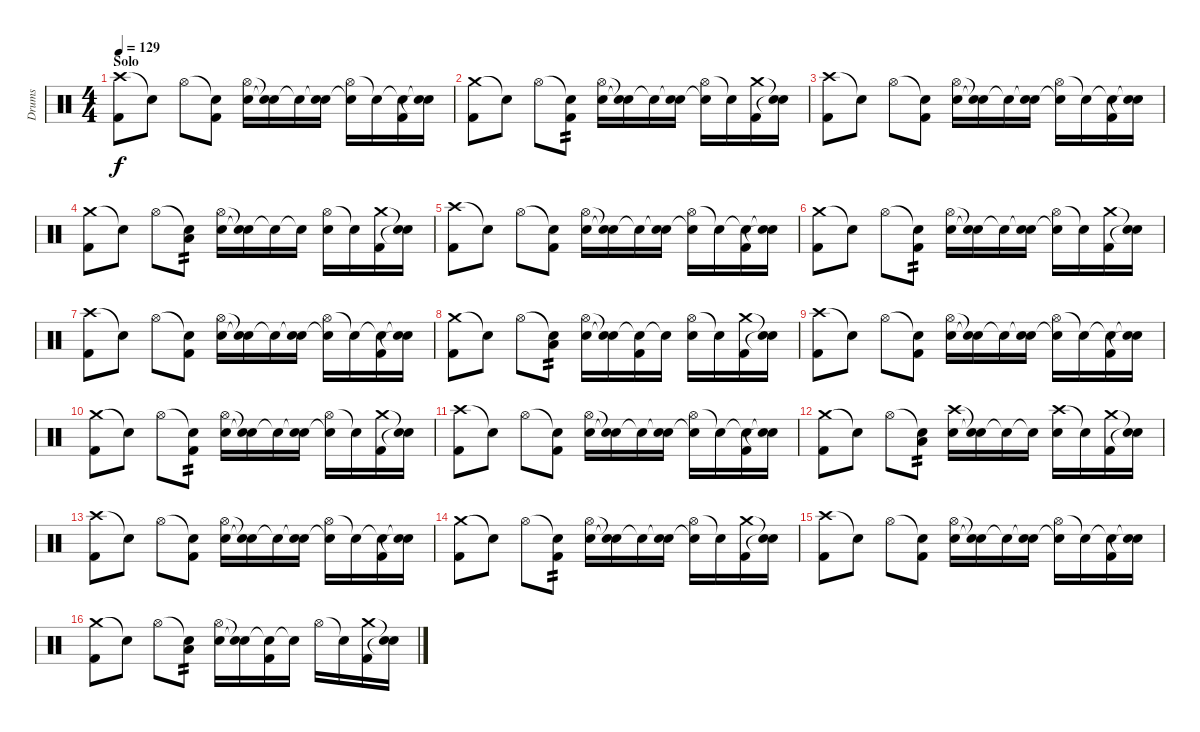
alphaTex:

\track ("Drums" "Drums") {instrument percussion}
\staff {score}
\articulation defaults
\ts (4 4)
\section ("" "Solo")
\tempo 129
\clef neutral
\ks c
("Crash high (hit)" "Kick (hit) 2").8{dy f volume 15} "Snare (hit)"{t}.8 "Hi-Hat (open)".8 ("Snare (hit)"{t} "Kick (hit) 2").8 ("Hi-Hat (open)" "Electric Snare (hit)").16 ("Snare (hit)"{t} "Snare (hit)"{t}).16 "Snare (hit)"{t}.16 ("Snare (hit)"{t} "Electric Snare (hit)").16 ("Hi-Hat (open)" "Snare (hit)"{t}).16 "Snare (hit)"{t}.16 ("Snare (hit)"{t} "Kick (hit) 2").16 ("Snare (hit)"{t} "Snare (hit)"{t}).16 |
("Crash medium (hit)" "Kick (hit) 2").8 "Snare (hit)"{t}.8 "Hi-Hat (open)".8 ("Snare (hit)"{t} "Kick (hit) 2").8{tp 2} ("Hi-Hat (open)" "Electric Snare (hit)").16 ("Snare (hit)"{t} "Snare (hit)"{t}).16 "Snare (hit)"{t}.16 ("Snare (hit)"{t} "Electric Snare (hit)").16 ("Hi-Hat (open)" "Snare (hit)"{t}).16 "Snare (hit)"{t}.16 ("Crash medium (hit)" "Kick (hit) 2").16 ("Snare (hit)"{t} "Snare (hit)"{t}).16 |
("Crash high (hit)" "Kick (hit) 2").8 "Snare (hit)"{t}.8 "Hi-Hat (open)".8 ("Snare (hit)"{t} "Kick (hit) 2").8 ("Hi-Hat (open)" "Electric Snare (hit)").16 ("Snare (hit)"{t} "Snare (hit)"{t}).16 "Snare (hit)"{t}.16 ("Snare (hit)"{t} "Electric Snare (hit)").16 ("Hi-Hat (open)" "Snare (hit)"{t}).16 "Snare (hit)"{t}.16 ("Snare (hit)"{t} "Kick (hit) 2").16 ("Snare (hit)"{t} "Snare (hit)"{t}).16 |
("Crash medium (hit)" "Kick (hit) 2").8 "Snare (hit)"{t}.8 "Hi-Hat (open)".8 ("Snare (hit)"{t} "Low Tom (hit)").8{tp 2} ("Hi-Hat (open)" "Electric Snare (hit)").16 ("Snare (hit)"{t} "Snare (hit)"{t}).16 "Snare (hit)"{t}.16 "Snare (hit)"{t}.16 ("Hi-Hat (open)" "Electric Snare (hit)").16 "Snare (hit)"{t}.16 ("Crash medium (hit)" "Kick (hit) 2").16 ("Snare (hit)"{t} "Snare (hit)"{t}).16 |
("Crash high (hit)" "Kick (hit) 2").8 "Snare (hit)"{t}.8 "Hi-Hat (open)".8 ("Snare (hit)"{t} "Kick (hit) 2").8 ("Hi-Hat (open)" "Electric Snare (hit)").16 ("Snare (hit)"{t} "Snare (hit)"{t}).16 "Snare (hit)"{t}.16 ("Snare (hit)"{t} "Electric Snare (hit)").16 ("Hi-Hat (open)" "Snare (hit)"{t}).16 "Snare (hit)"{t}.16 ("Snare (hit)"{t} "Kick (hit) 2").16 ("Snare (hit)"{t} "Snare (hit)"{t}).16 |
("Crash medium (hit)" "Kick (hit) 2").8 "Snare (hit)"{t}.8 "Hi-Hat (open)".8 ("Snare (hit)"{t} "Kick (hit) 2").8{tp 2} ("Hi-Hat (open)" "Electric Snare (hit)").16 ("Snare (hit)"{t} "Snare (hit)"{t}).16 "Snare (hit)"{t}.16 ("Snare (hit)"{t} "Electric Snare (hit)").16 ("Hi-Hat (open)" "Snare (hit)"{t}).16 "Snare (hit)"{t}.16 ("Crash medium (hit)" "Kick (hit) 2").16 ("Snare (hit)"{t} "Snare (hit)"{t}).16 |
("Crash high (hit)" "Kick (hit) 2").8 "Snare (hit)"{t}.8 "Hi-Hat (open)".8 ("Snare (hit)"{t} "Kick (hit) 2").8 ("Hi-Hat (open)" "Electric Snare (hit)").16 ("Snare (hit)"{t} "Snare (hit)"{t}).16 "Snare (hit)"{t}.16 ("Snare (hit)"{t} "Electric Snare (hit)").16 ("Hi-Hat (open)" "Snare (hit)"{t}).16 "Snare (hit)"{t}.16 ("Snare (hit)"{t} "Kick (hit) 2").16 ("Snare (hit)"{t} "Snare (hit)"{t}).16 |
("Crash medium (hit)" "Kick (hit) 2").8 "Snare (hit)"{t}.8 "Hi-Hat (open)".8 ("Snare (hit)"{t} "Low Tom (hit)").8{tp 2} ("Hi-Hat (open)" "Electric Snare (hit)").16 ("Snare (hit)"{t} "Snare (hit)"{t}).16 ("Snare (hit)"{t} "Kick (hit) 2").16 "Snare (hit)"{t}.16 ("Hi-Hat (open)" "Electric Snare (hit)").16 "Snare (hit)"{t}.16 ("Crash medium (hit)" "Kick (hit) 2").16 ("Snare (hit)"{t} "Snare (hit)"{t}).16 |
("Crash high (hit)" "Kick (hit) 2").8 "Snare (hit)"{t}.8 "Hi-Hat (open)".8 ("Snare (hit)"{t} "Kick (hit) 2").8 ("Hi-Hat (open)" "Electric Snare (hit)").16 ("Snare (hit)"{t} "Snare (hit)"{t}).16 "Snare (hit)"{t}.16 ("Snare (hit)"{t} "Electric Snare (hit)").16 ("Hi-Hat (open)" "Snare (hit)"{t}).16 "Snare (hit)"{t}.16 ("Snare (hit)"{t} "Kick (hit) 2").16 ("Snare (hit)"{t} "Snare (hit)"{t}).16 |
("Crash medium (hit)" "Kick (hit) 2").8 "Snare (hit)"{t}.8 "Hi-Hat (open)".8 ("Snare (hit)"{t} "Kick (hit) 2").8{tp 2} ("Hi-Hat (open)" "Electric Snare (hit)").16 ("Snare (hit)"{t} "Snare (hit)"{t}).16 "Snare (hit)"{t}.16 ("Snare (hit)"{t} "Electric Snare (hit)").16 ("Hi-Hat (open)" "Snare (hit)"{t}).16 "Snare (hit)"{t}.16 ("Crash medium (hit)" "Kick (hit) 2").16 ("Snare (hit)"{t} "Snare (hit)"{t}).16 |
("Crash high (hit)" "Kick (hit) 2").8 "Snare (hit)"{t}.8 "Hi-Hat (open)".8 ("Snare (hit)"{t} "Kick (hit) 2").8 ("Hi-Hat (open)" "Electric Snare (hit)").16 ("Snare (hit)"{t} "Snare (hit)"{t}).16 "Snare (hit)"{t}.16 ("Snare (hit)"{t} "Electric Snare (hit)").16 ("Hi-Hat (open)" "Snare (hit)"{t}).16 "Snare (hit)"{t}.16 ("Snare (hit)"{t} "Kick (hit) 2").16 ("Snare (hit)"{t} "Snare (hit)"{t}).16 |
("Crash medium (hit)" "Kick (hit) 2").8 "Snare (hit)"{t}.8 "Hi-Hat (open)".8 ("Snare (hit)"{t} "Low Tom (hit)").8{tp 2} ("Crash high (hit)" "Electric Snare (hit)").16 ("Snare (hit)"{t} "Snare (hit)"{t}).16 "Snare (hit)"{t}.16 "Snare (hit)"{t}.16 ("Crash high (hit)" "Electric Snare (hit)").16 "Snare (hit)"{t}.16 ("Crash medium (hit)" "Kick (hit) 2").16 ("Snare (hit)"{t} "Snare (hit)"{t}).16 |
("Crash high (hit)" "Kick (hit) 2").8 "Snare (hit)"{t}.8 "Hi-Hat (open)".8 ("Snare (hit)"{t} "Kick (hit) 2").8 ("Hi-Hat (open)" "Electric Snare (hit)").16 ("Snare (hit)"{t} "Snare (hit)"{t}).16 "Snare (hit)"{t}.16 ("Snare (hit)"{t} "Electric Snare (hit)").16 ("Hi-Hat (open)" "Snare (hit)"{t}).16 "Snare (hit)"{t}.16 ("Snare (hit)"{t} "Kick (hit) 2").16 ("Snare (hit)"{t} "Snare (hit)"{t}).16 |
("Crash medium (hit)" "Kick (hit) 2").8 "Snare (hit)"{t}.8 "Hi-Hat (open)".8 ("Snare (hit)"{t} "Kick (hit) 2").8{tp 2} ("Hi-Hat (open)" "Electric Snare (hit)").16 ("Snare (hit)"{t} "Snare (hit)"{t}).16 "Snare (hit)"{t}.16 ("Snare (hit)"{t} "Electric Snare (hit)").16 ("Hi-Hat (open)" "Snare (hit)"{t}).16 "Snare (hit)"{t}.16 ("Crash medium (hit)" "Kick (hit) 2").16 ("Snare (hit)"{t} "Snare (hit)"{t}).16 |
("Crash high (hit)" "Kick (hit) 2").8 "Snare (hit)"{t}.8 "Hi-Hat (open)".8 ("Snare (hit)"{t} "Kick (hit) 2").8 ("Hi-Hat (open)" "Electric Snare (hit)").16 ("Snare (hit)"{t} "Snare (hit)"{t}).16 "Snare (hit)"{t}.16 ("Snare (hit)"{t} "Electric Snare (hit)").16 ("Hi-Hat (open)" "Snare (hit)"{t}).16 "Snare (hit)"{t}.16 ("Snare (hit)"{t} "Kick (hit) 2").16 ("Snare (hit)"{t} "Snare (hit)"{t}).16 |
("Crash medium (hit)" "Kick (hit) 2").8 "Snare (hit)"{t}.8 "Hi-Hat (open)".8 ("Snare (hit)"{t} "Low Tom (hit)").8{tp 2} ("Hi-Hat (open)" "Electric Snare (hit)").16 ("Snare (hit)"{t} "Snare (hit)"{t}).16 ("Snare (hit)"{t} "Kick (hit) 2").16 "Snare (hit)"{t}.16 "Hi-Hat (open)".16 "Snare (hit)"{t}.16 ("Crash medium (hit)" "Kick (hit) 2").16 ("Snare (hit)"{t} "Snare (hit)"{t}).16
